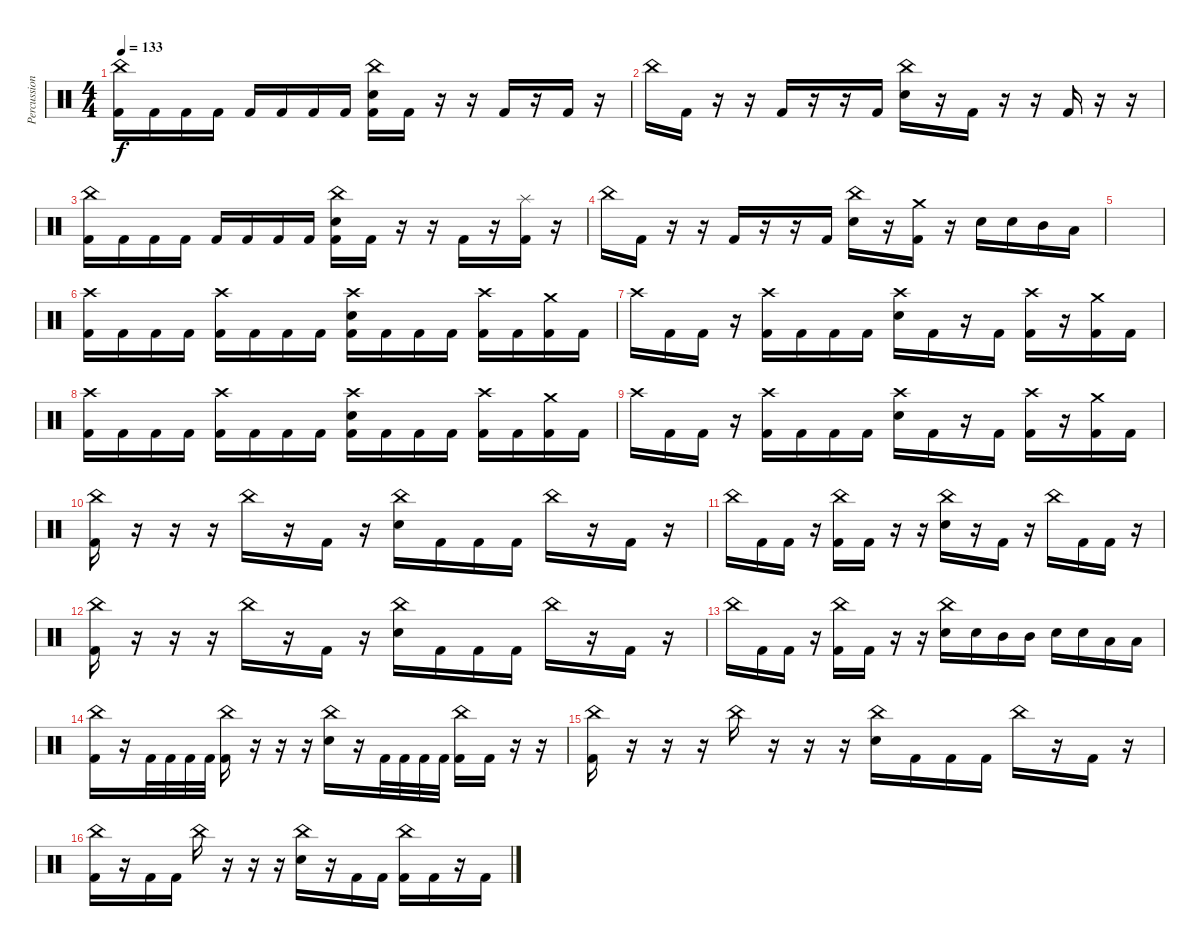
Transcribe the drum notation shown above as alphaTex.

\track ("Percussion" "Percussion") {instrument percussion}
\staff {score}
\articulation defaults
\ts (4 4)
\tempo 133
\clef neutral
\ks c
("China (hit)" "Kick (hit) 2").16{dy f} "Kick (hit) 2".16 "Kick (hit) 2".16 "Kick (hit) 2".16 "Kick (hit) 2".16 "Kick (hit) 2".16 "Kick (hit) 2".16 "Kick (hit) 2".16 ("China (hit)" "Electric Snare (hit)" "Kick (hit) 2").16 "Kick (hit) 2".16 r.16 r.16 "Kick (hit) 2".16 r.16 "Kick (hit) 2".16 r.16 |
"China (hit)".16 "Kick (hit) 2".16 r.16 r.16 "Kick (hit) 2".16 r.16 r.16 "Kick (hit) 2".16 ("China (hit)" "Electric Snare (hit)").16 r.16 "Kick (hit) 2".16 r.16 r.16 "Kick (hit) 2".16 r.16 r.16 |
("China (hit)" "Kick (hit) 2").16 "Kick (hit) 2".16 "Kick (hit) 2".16 "Kick (hit) 2".16 "Kick (hit) 2".16 "Kick (hit) 2".16 "Kick (hit) 2".16 "Kick (hit) 2".16 ("China (hit)" "Electric Snare (hit)" "Kick (hit) 2").16 "Kick (hit) 2".16 r.16 r.16 "Kick (hit) 2".16 r.16 ("Splash (hit)" "Kick (hit) 2").16 r.16 |
"China (hit)".16 "Kick (hit) 2".16 r.16 r.16 "Kick (hit) 2".16 r.16 r.16 "Kick (hit) 2".16 ("China (hit)" "Electric Snare (hit)").16 r.16 ("Crash medium (hit)" "Kick (hit) 2").16 r.16 "Electric Snare (hit)".16 "Electric Snare (hit)".16 "Mid Tom (hit)".16 "Low Tom (hit)".16 |
|
("Crash high (hit)" "Kick (hit) 2").16 "Kick (hit) 2".16 "Kick (hit) 2".16 "Kick (hit) 2".16 ("Crash high (hit)" "Kick (hit) 2").16 "Kick (hit) 2".16 "Kick (hit) 2".16 "Kick (hit) 2".16 ("Crash high (hit)" "Electric Snare (hit)" "Kick (hit) 2").16 "Kick (hit) 2".16 "Kick (hit) 2".16 "Kick (hit) 2".16 ("Crash high (hit)" "Kick (hit) 2").16 "Kick (hit) 2".16 ("Crash medium (hit)" "Kick (hit) 2").16 "Kick (hit) 2".16 |
"Crash high (hit)".16 "Kick (hit) 2".16 "Kick (hit) 2".16 r.16 ("Crash high (hit)" "Kick (hit) 2").16 "Kick (hit) 2".16 "Kick (hit) 2".16 "Kick (hit) 2".16 ("Crash high (hit)" "Electric Snare (hit)").16 "Kick (hit) 2".16 r.16 "Kick (hit) 2".16 ("Crash high (hit)" "Kick (hit) 2").16 r.16 ("Crash medium (hit)" "Kick (hit) 2").16 "Kick (hit) 2".16 |
("Crash high (hit)" "Kick (hit) 2").16 "Kick (hit) 2".16 "Kick (hit) 2".16 "Kick (hit) 2".16 ("Crash high (hit)" "Kick (hit) 2").16 "Kick (hit) 2".16 "Kick (hit) 2".16 "Kick (hit) 2".16 ("Crash high (hit)" "Electric Snare (hit)" "Kick (hit) 2").16 "Kick (hit) 2".16 "Kick (hit) 2".16 "Kick (hit) 2".16 ("Crash high (hit)" "Kick (hit) 2").16 "Kick (hit) 2".16 ("Crash medium (hit)" "Kick (hit) 2").16 "Kick (hit) 2".16 |
"Crash high (hit)".16 "Kick (hit) 2".16 "Kick (hit) 2".16 r.16 ("Crash high (hit)" "Kick (hit) 2").16 "Kick (hit) 2".16 "Kick (hit) 2".16 "Kick (hit) 2".16 ("Crash high (hit)" "Electric Snare (hit)").16 "Kick (hit) 2".16 r.16 "Kick (hit) 2".16 ("Crash high (hit)" "Kick (hit) 2").16 r.16 ("Crash medium (hit)" "Kick (hit) 2").16 "Kick (hit) 2".16 |
("China (hit)" "Kick (hit) 2").16 r.16 r.16 r.16 "China (hit)".16 r.16 "Kick (hit) 2".16 r.16 ("China (hit)" "Electric Snare (hit)").16 "Kick (hit) 2".16 "Kick (hit) 2".16 "Kick (hit) 2".16 "China (hit)".16 r.16 "Kick (hit) 2".16 r.16 |
"China (hit)".16 "Kick (hit) 2".16 "Kick (hit) 2".16 r.16 ("China (hit)" "Kick (hit) 2").16 "Kick (hit) 2".16 r.16 r.16 ("China (hit)" "Electric Snare (hit)").16 r.16 "Kick (hit) 2".16 r.16 "China (hit)".16 "Kick (hit) 2".16 "Kick (hit) 2".16 r.16 |
("China (hit)" "Kick (hit) 2").16 r.16 r.16 r.16 "China (hit)".16 r.16 "Kick (hit) 2".16 r.16 ("China (hit)" "Electric Snare (hit)").16 "Kick (hit) 2".16 "Kick (hit) 2".16 "Kick (hit) 2".16 "China (hit)".16 r.16 "Kick (hit) 2".16 r.16 |
"China (hit)".16 "Kick (hit) 2".16 "Kick (hit) 2".16 r.16 ("China (hit)" "Kick (hit) 2").16 "Kick (hit) 2".16 r.16 r.16 ("China (hit)" "Electric Snare (hit)").16 "Electric Snare (hit)".16 "Mid Tom (hit)".16 "Mid Tom (hit)".16 "Electric Snare (hit)".16 "Electric Snare (hit)".16 "Low Tom (hit)".16 "Low Tom (hit)".16 |
("China (hit)" "Kick (hit) 2").16 r.16 "Kick (hit) 2".32 "Kick (hit) 2".32 "Kick (hit) 2".32 "Kick (hit) 2".32 ("China (hit)" "Kick (hit) 2").16 r.16 r.16 r.16 ("China (hit)" "Electric Snare (hit)").16 r.16 "Kick (hit) 2".32 "Kick (hit) 2".32 "Kick (hit) 2".32 "Kick (hit) 2".32 ("China (hit)" "Kick (hit) 2").16 "Kick (hit) 2".16 r.16 r.16 |
("China (hit)" "Kick (hit) 2").16 r.16 r.16 r.16 "China (hit)".16 r.16 r.16 r.16 ("China (hit)" "Electric Snare (hit)").16 "Kick (hit) 2".16 "Kick (hit) 2".16 "Kick (hit) 2".16 "China (hit)".16 r.16 "Kick (hit) 2".16 r.16 |
("China (hit)" "Kick (hit) 2").16 r.16 "Kick (hit) 2".16 "Kick (hit) 2".16 "China (hit)".16 r.16 r.16 r.16 ("China (hit)" "Electric Snare (hit)").16 r.16 "Kick (hit) 2".16 "Kick (hit) 2".16 ("China (hit)" "Kick (hit) 2").16 "Kick (hit) 2".16 r.16 "Kick (hit) 2".16
